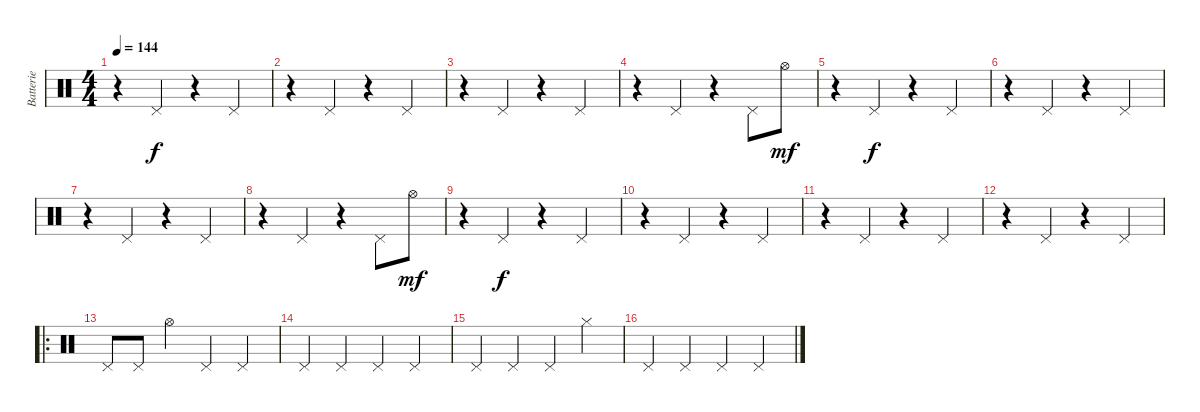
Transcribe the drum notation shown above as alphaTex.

\track ("Batterie" "Batterie") {instrument percussion}
\staff {score}
\articulation defaults
\ts (4 4)
\tempo 144
\clef neutral
\ks c
r.4{dy mf} "Pedal Hi-Hat (hit)".4{dy f} r.4 "Pedal Hi-Hat (hit)".4 |
r.4 "Pedal Hi-Hat (hit)".4 r.4 "Pedal Hi-Hat (hit)".4 |
r.4 "Pedal Hi-Hat (hit)".4 r.4 "Pedal Hi-Hat (hit)".4 |
r.4 "Pedal Hi-Hat (hit)".4 r.4 "Pedal Hi-Hat (hit)".8 "Hi-Hat (open)".8{dy mf} |
r.4 "Pedal Hi-Hat (hit)".4{dy f} r.4 "Pedal Hi-Hat (hit)".4 |
r.4 "Pedal Hi-Hat (hit)".4 r.4 "Pedal Hi-Hat (hit)".4 |
r.4 "Pedal Hi-Hat (hit)".4 r.4 "Pedal Hi-Hat (hit)".4 |
r.4 "Pedal Hi-Hat (hit)".4 r.4 "Pedal Hi-Hat (hit)".8 "Hi-Hat (open)".8{dy mf} |
r.4 "Pedal Hi-Hat (hit)".4{dy f} r.4 "Pedal Hi-Hat (hit)".4 |
r.4 "Pedal Hi-Hat (hit)".4 r.4 "Pedal Hi-Hat (hit)".4 |
r.4 "Pedal Hi-Hat (hit)".4 r.4 "Pedal Hi-Hat (hit)".4 |
r.4 "Pedal Hi-Hat (hit)".4 r.4 "Pedal Hi-Hat (hit)".4 |
\ro "Pedal Hi-Hat (hit)".8 "Pedal Hi-Hat (hit)".8 "Hi-Hat (open)".4 "Pedal Hi-Hat (hit)".4 "Pedal Hi-Hat (hit)".4
|
"Pedal Hi-Hat (hit)".4 "Pedal Hi-Hat (hit)".4 "Pedal Hi-Hat (hit)".4 "Pedal Hi-Hat (hit)".4 |
"Pedal Hi-Hat (hit)".4 "Pedal Hi-Hat (hit)".4 "Pedal Hi-Hat (hit)".4 "Hi-Hat (closed)".4 |
"Pedal Hi-Hat (hit)".4 "Pedal Hi-Hat (hit)".4 "Pedal Hi-Hat (hit)".4 "Pedal Hi-Hat (hit)".4
